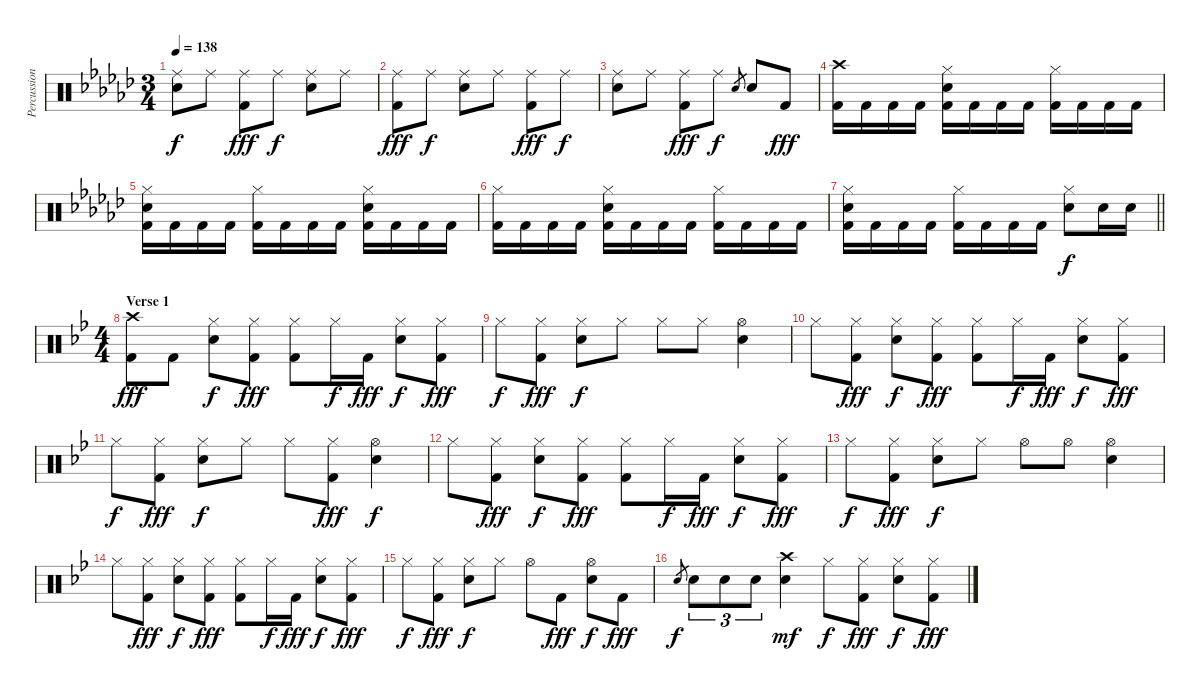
\track ("Percussion" "Percussion") {instrument percussion}
\staff {score}
\articulation defaults
\ts (3 4)
\tempo 138
\clef neutral
\ks ebminor
("Ride (middle)" "Electric Snare (hit)").8{dy f} "Ride (middle)".8 ("Ride (middle)" "Kick (hit) 2").8{dy fff} "Ride (middle)".8{dy f} ("Ride (middle)" "Electric Snare (hit)").8 "Ride (middle)".8 |
("Ride (middle)" "Kick (hit) 2").8{dy fff} "Ride (middle)".8{dy f} ("Ride (middle)" "Electric Snare (hit)").8 "Ride (middle)".8 ("Ride (middle)" "Kick (hit) 2").8{dy fff} "Ride (middle)".8{dy f} |
("Ride (middle)" "Electric Snare (hit)").8 "Ride (middle)".8 ("Ride (middle)" "Kick (hit) 2").8{dy fff} "Ride (middle)".8{dy f} "Electric Snare (hit)".8{gr} "Electric Snare (hit)".8 "Kick (hit) 2".8{dy fff} |
("Crash high (hit)" "Kick (hit) 2").16 "Kick (hit) 2".16 "Kick (hit) 2".16 "Kick (hit) 2".16 ("Hi-Hat (closed)" "Electric Snare (hit)" "Kick (hit) 2").16 "Kick (hit) 2".16 "Kick (hit) 2".16 "Kick (hit) 2".16 ("Hi-Hat (closed)" "Kick (hit) 2").16 "Kick (hit) 2".16 "Kick (hit) 2".16 "Kick (hit) 2".16 |
("Hi-Hat (closed)" "Electric Snare (hit)" "Kick (hit) 2").16 "Kick (hit) 2".16 "Kick (hit) 2".16 "Kick (hit) 2".16 ("Hi-Hat (closed)" "Kick (hit) 2").16 "Kick (hit) 2".16 "Kick (hit) 2".16 "Kick (hit) 2".16 ("Hi-Hat (closed)" "Electric Snare (hit)" "Kick (hit) 2").16 "Kick (hit) 2".16 "Kick (hit) 2".16 "Kick (hit) 2".16 |
("Hi-Hat (closed)" "Kick (hit) 2").16 "Kick (hit) 2".16 "Kick (hit) 2".16 "Kick (hit) 2".16 ("Hi-Hat (closed)" "Electric Snare (hit)" "Kick (hit) 2").16 "Kick (hit) 2".16 "Kick (hit) 2".16 "Kick (hit) 2".16 ("Hi-Hat (closed)" "Kick (hit) 2").16 "Kick (hit) 2".16 "Kick (hit) 2".16 "Kick (hit) 2".16 |
\barLineRight lightlight
("Hi-Hat (closed)" "Electric Snare (hit)" "Kick (hit) 2").16 "Kick (hit) 2".16 "Kick (hit) 2".16 "Kick (hit) 2".16 ("Hi-Hat (closed)" "Kick (hit) 2").16 "Kick (hit) 2".16 "Kick (hit) 2".16 "Kick (hit) 2".16 ("Hi-Hat (closed)" "Electric Snare (hit)").8{dy f} "Electric Snare (hit)".16 "Electric Snare (hit)".16 |
\ts (4 4)
\section ("" "Verse 1")
\ks gminor
("Crash high (hit)" "Kick (hit) 2").8{dy fff} "Kick (hit) 2".8 ("Hi-Hat (closed)" "Electric Snare (hit)").8{dy f} ("Hi-Hat (closed)" "Kick (hit) 2").8{dy fff} ("Hi-Hat (closed)" "Kick (hit) 2").8 "Hi-Hat (closed)".16{dy f} "Kick (hit) 2".16{dy fff} ("Hi-Hat (closed)" "Electric Snare (hit)").8{dy f} ("Hi-Hat (closed)" "Kick (hit) 2").8{dy fff} |
"Hi-Hat (closed)".8{dy f} ("Hi-Hat (closed)" "Kick (hit) 2").8{dy fff} ("Hi-Hat (closed)" "Electric Snare (hit)").8{dy f} "Hi-Hat (closed)".8 "Hi-Hat (closed)".8 "Hi-Hat (closed)".8 ("Hi-Hat (open)" "Electric Snare (hit)").4 |
"Hi-Hat (closed)".8 ("Hi-Hat (closed)" "Kick (hit) 2").8{dy fff} ("Hi-Hat (closed)" "Electric Snare (hit)").8{dy f} ("Hi-Hat (closed)" "Kick (hit) 2").8{dy fff} ("Hi-Hat (closed)" "Kick (hit) 2").8 "Hi-Hat (closed)".16{dy f} "Kick (hit) 2".16{dy fff} ("Hi-Hat (closed)" "Electric Snare (hit)").8{dy f} ("Hi-Hat (closed)" "Kick (hit) 2").8{dy fff} |
"Hi-Hat (closed)".8{dy f} ("Hi-Hat (closed)" "Kick (hit) 2").8{dy fff} ("Hi-Hat (closed)" "Electric Snare (hit)").8{dy f} "Hi-Hat (closed)".8 "Hi-Hat (closed)".8 ("Hi-Hat (closed)" "Kick (hit) 2").8{dy fff} ("Hi-Hat (open)" "Electric Snare (hit)").4{dy f} |
"Hi-Hat (closed)".8 ("Hi-Hat (closed)" "Kick (hit) 2").8{dy fff} ("Hi-Hat (closed)" "Electric Snare (hit)").8{dy f} ("Hi-Hat (closed)" "Kick (hit) 2").8{dy fff} ("Hi-Hat (closed)" "Kick (hit) 2").8 "Hi-Hat (closed)".16{dy f} "Kick (hit) 2".16{dy fff} ("Hi-Hat (closed)" "Electric Snare (hit)").8{dy f} ("Hi-Hat (closed)" "Kick (hit) 2").8{dy fff} |
"Hi-Hat (closed)".8{dy f} ("Hi-Hat (closed)" "Kick (hit) 2").8{dy fff} ("Hi-Hat (closed)" "Electric Snare (hit)").8{dy f} "Hi-Hat (closed)".8 "Hi-Hat (open)".8 "Hi-Hat (open)".8 ("Hi-Hat (open)" "Electric Snare (hit)").4 |
"Hi-Hat (closed)".8 ("Hi-Hat (closed)" "Kick (hit) 2").8{dy fff} ("Hi-Hat (closed)" "Electric Snare (hit)").8{dy f} ("Hi-Hat (closed)" "Kick (hit) 2").8{dy fff} ("Hi-Hat (closed)" "Kick (hit) 2").8 "Hi-Hat (closed)".16{dy f} "Kick (hit) 2".16{dy fff} ("Hi-Hat (closed)" "Electric Snare (hit)").8{dy f} ("Hi-Hat (closed)" "Kick (hit) 2").8{dy fff} |
"Hi-Hat (closed)".8{dy f} ("Hi-Hat (closed)" "Kick (hit) 2").8{dy fff} ("Hi-Hat (closed)" "Electric Snare (hit)").8{dy f} "Hi-Hat (closed)".8 "Hi-Hat (open)".8 "Kick (hit) 2".8{dy fff} ("Hi-Hat (open)" "Electric Snare (hit)").8{dy f} "Kick (hit) 2".8{dy fff} |
"Electric Snare (hit)".8{gr dy f} "Electric Snare (hit)".8{tu (3 2)} "Electric Snare (hit)".8{tu (3 2)} "Electric Snare (hit)".8{tu (3 2)} ("Crash high (hit)" "Electric Snare (hit)").4{dy mf} "Hi-Hat (closed)".8{dy f} ("Hi-Hat (closed)" "Kick (hit) 2").8{dy fff} ("Hi-Hat (closed)" "Electric Snare (hit)").8{dy f} ("Hi-Hat (closed)" "Kick (hit) 2").8{dy fff}
